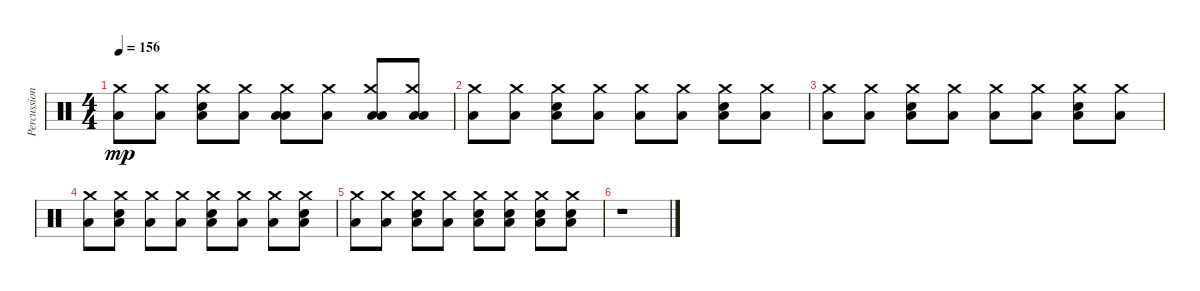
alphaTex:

\track ("Percussions" "Percussion") {instrument percussion}
\staff {score}
\articulation defaults
\ts (4 4)
\tempo 156
\clef neutral
\ks c
("Low Floor Tom (hit)" "Crash medium (hit)").8{dy mp} ("Low Floor Tom (hit)" "Crash medium (hit)").8 ("Low Floor Tom (hit)" "Electric Snare (hit)" "Crash medium (hit)").8 ("Low Floor Tom (hit)" "Crash medium (hit)").8 ("Low Floor Tom (hit)" "Low Tom (hit)" "Crash medium (hit)").8 ("Low Floor Tom (hit)" "Crash medium (hit)").8 ("Low Floor Tom (hit)" "Low Tom (hit)" "Crash medium (hit)").8 ("Low Floor Tom (hit)" "Low Tom (hit)" "Crash medium (hit)").8 |
("Low Floor Tom (hit)" "Crash medium (hit)").8 ("Low Floor Tom (hit)" "Crash medium (hit)").8 ("Low Floor Tom (hit)" "Electric Snare (hit)" "Crash medium (hit)").8 ("Low Floor Tom (hit)" "Crash medium (hit)").8 ("Low Floor Tom (hit)" "Crash medium (hit)").8 ("Low Floor Tom (hit)" "Crash medium (hit)").8 ("Low Floor Tom (hit)" "Electric Snare (hit)" "Crash medium (hit)").8 ("Low Floor Tom (hit)" "Crash medium (hit)").8 |
("Low Floor Tom (hit)" "Crash medium (hit)").8 ("Low Floor Tom (hit)" "Crash medium (hit)").8 ("Low Floor Tom (hit)" "Electric Snare (hit)" "Crash medium (hit)").8 ("Low Floor Tom (hit)" "Crash medium (hit)").8 ("Low Floor Tom (hit)" "Crash medium (hit)").8 ("Low Floor Tom (hit)" "Crash medium (hit)").8 ("Low Floor Tom (hit)" "Electric Snare (hit)" "Crash medium (hit)").8 ("Low Floor Tom (hit)" "Crash medium (hit)").8 |
("Low Floor Tom (hit)" "Crash medium (hit)").8 ("Low Floor Tom (hit)" "Electric Snare (hit)" "Crash medium (hit)").8 ("Low Floor Tom (hit)" "Crash medium (hit)").8 ("Low Floor Tom (hit)" "Crash medium (hit)").8 ("Low Floor Tom (hit)" "Electric Snare (hit)" "Crash medium (hit)").8 ("Low Floor Tom (hit)" "Crash medium (hit)").8 ("Low Floor Tom (hit)" "Crash medium (hit)").8 ("Low Floor Tom (hit)" "Electric Snare (hit)" "Crash medium (hit)").8 |
("Low Floor Tom (hit)" "Crash medium (hit)").8 ("Low Floor Tom (hit)" "Crash medium (hit)").8 ("Low Floor Tom (hit)" "Electric Snare (hit)" "Crash medium (hit)").8 ("Low Floor Tom (hit)" "Crash medium (hit)").8 ("Low Floor Tom (hit)" "Electric Snare (hit)" "Crash medium (hit)").8 ("Low Floor Tom (hit)" "Electric Snare (hit)" "Crash medium (hit)").8 ("Low Floor Tom (hit)" "Electric Snare (hit)" "Crash medium (hit)").8 ("Low Floor Tom (hit)" "Electric Snare (hit)" "Crash medium (hit)").8 |
r.1
